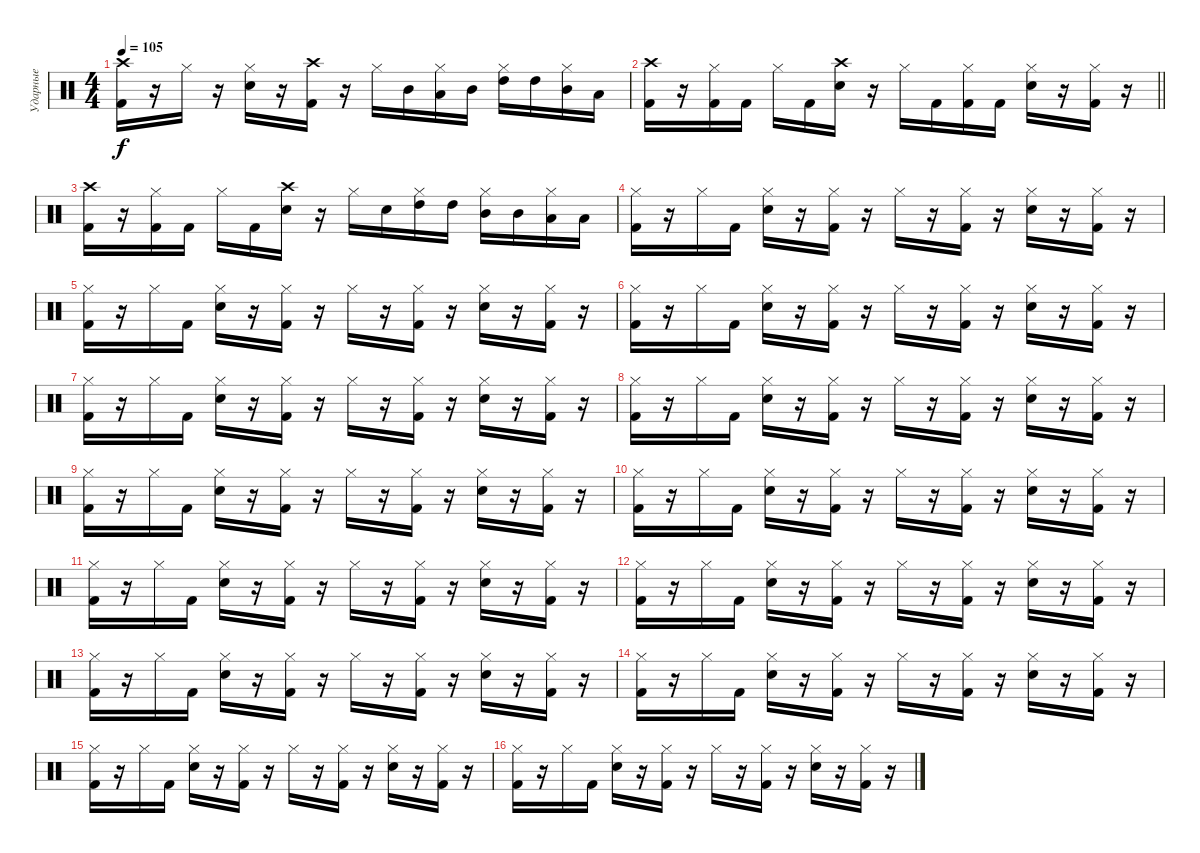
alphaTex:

\track ("Ударные" "Ударные") {instrument percussion}
\staff {score}
\articulation defaults
\ts (4 4)
\tempo 105
\clef neutral
\ks c
("Crash high (hit)" "Kick (hit) 2").16{dy f} r.16 "Hi-Hat (closed)".16 r.16 ("Hi-Hat (closed)" "Electric Snare (hit)").16 r.16 ("Crash high (hit)" "Kick (hit) 2").16 r.16 "Hi-Hat (closed)".16 "Mid Tom (hit)".16 ("Hi-Hat (closed)" "Low Tom (hit)").16 "Mid Tom (hit)".16 ("Hi-Hat (closed)" "High Tom (hit)").16 "High Tom (hit)".16 ("Hi-Hat (closed)" "Mid Tom (hit)").16 "Low Tom (hit)".16 |
\barLineRight lightlight
("Crash high (hit)" "Kick (hit) 2").16 r.16 ("Hi-Hat (closed)" "Kick (hit) 2").16 "Kick (hit) 2".16 "Hi-Hat (closed)".16 "Kick (hit) 2".16 ("Crash high (hit)" "Electric Snare (hit)").16 r.16 "Hi-Hat (closed)".16 "Kick (hit) 2".16 ("Hi-Hat (closed)" "Kick (hit) 2").16 "Kick (hit) 2".16 ("Hi-Hat (closed)" "Electric Snare (hit)").16 r.16 ("Hi-Hat (closed)" "Kick (hit) 2").16 r.16 |
("Crash high (hit)" "Kick (hit) 2").16 r.16 ("Hi-Hat (closed)" "Kick (hit) 2").16 "Kick (hit) 2".16 "Hi-Hat (closed)".16 "Kick (hit) 2".16 ("Crash high (hit)" "Electric Snare (hit)").16 r.16 "Hi-Hat (closed)".16 "Electric Snare (hit)".16 ("Hi-Hat (closed)" "High Tom (hit)").16 "High Tom (hit)".16 ("Hi-Hat (closed)" "Mid Tom (hit)").16 "Mid Tom (hit)".16 ("Hi-Hat (closed)" "Low Tom (hit)").16 "Low Tom (hit)".16 |
("Hi-Hat (closed)" "Kick (hit) 2").16 r.16 "Hi-Hat (closed)".16 "Kick (hit) 2".16 ("Hi-Hat (closed)" "Electric Snare (hit)").16 r.16 ("Hi-Hat (closed)" "Kick (hit) 2").16 r.16 "Hi-Hat (closed)".16 r.16 ("Hi-Hat (closed)" "Kick (hit) 2").16 r.16 ("Hi-Hat (closed)" "Electric Snare (hit)").16 r.16 ("Hi-Hat (closed)" "Kick (hit) 2").16 r.16 |
("Hi-Hat (closed)" "Kick (hit) 2").16 r.16 "Hi-Hat (closed)".16 "Kick (hit) 2".16 ("Hi-Hat (closed)" "Electric Snare (hit)").16 r.16 ("Hi-Hat (closed)" "Kick (hit) 2").16 r.16 "Hi-Hat (closed)".16 r.16 ("Hi-Hat (closed)" "Kick (hit) 2").16 r.16 ("Hi-Hat (closed)" "Electric Snare (hit)").16 r.16 ("Hi-Hat (closed)" "Kick (hit) 2").16 r.16 |
("Hi-Hat (closed)" "Kick (hit) 2").16 r.16 "Hi-Hat (closed)".16 "Kick (hit) 2".16 ("Hi-Hat (closed)" "Electric Snare (hit)").16 r.16 ("Hi-Hat (closed)" "Kick (hit) 2").16 r.16 "Hi-Hat (closed)".16 r.16 ("Hi-Hat (closed)" "Kick (hit) 2").16 r.16 ("Hi-Hat (closed)" "Electric Snare (hit)").16 r.16 ("Hi-Hat (closed)" "Kick (hit) 2").16 r.16 |
("Hi-Hat (closed)" "Kick (hit) 2").16 r.16 "Hi-Hat (closed)".16 "Kick (hit) 2".16 ("Hi-Hat (closed)" "Electric Snare (hit)").16 r.16 ("Hi-Hat (closed)" "Kick (hit) 2").16 r.16 "Hi-Hat (closed)".16 r.16 ("Hi-Hat (closed)" "Kick (hit) 2").16 r.16 ("Hi-Hat (closed)" "Electric Snare (hit)").16 r.16 ("Hi-Hat (closed)" "Kick (hit) 2").16 r.16 |
("Hi-Hat (closed)" "Kick (hit) 2").16 r.16 "Hi-Hat (closed)".16 "Kick (hit) 2".16 ("Hi-Hat (closed)" "Electric Snare (hit)").16 r.16 ("Hi-Hat (closed)" "Kick (hit) 2").16 r.16 "Hi-Hat (closed)".16 r.16 ("Hi-Hat (closed)" "Kick (hit) 2").16 r.16 ("Hi-Hat (closed)" "Electric Snare (hit)").16 r.16 ("Hi-Hat (closed)" "Kick (hit) 2").16 r.16 |
("Hi-Hat (closed)" "Kick (hit) 2").16 r.16 "Hi-Hat (closed)".16 "Kick (hit) 2".16 ("Hi-Hat (closed)" "Electric Snare (hit)").16 r.16 ("Hi-Hat (closed)" "Kick (hit) 2").16 r.16 "Hi-Hat (closed)".16 r.16 ("Hi-Hat (closed)" "Kick (hit) 2").16 r.16 ("Hi-Hat (closed)" "Electric Snare (hit)").16 r.16 ("Hi-Hat (closed)" "Kick (hit) 2").16 r.16 |
("Hi-Hat (closed)" "Kick (hit) 2").16 r.16 "Hi-Hat (closed)".16 "Kick (hit) 2".16 ("Hi-Hat (closed)" "Electric Snare (hit)").16 r.16 ("Hi-Hat (closed)" "Kick (hit) 2").16 r.16 "Hi-Hat (closed)".16 r.16 ("Hi-Hat (closed)" "Kick (hit) 2").16 r.16 ("Hi-Hat (closed)" "Electric Snare (hit)").16 r.16 ("Hi-Hat (closed)" "Kick (hit) 2").16 r.16 |
("Hi-Hat (closed)" "Kick (hit) 2").16 r.16 "Hi-Hat (closed)".16 "Kick (hit) 2".16 ("Hi-Hat (closed)" "Electric Snare (hit)").16 r.16 ("Hi-Hat (closed)" "Kick (hit) 2").16 r.16 "Hi-Hat (closed)".16 r.16 ("Hi-Hat (closed)" "Kick (hit) 2").16 r.16 ("Hi-Hat (closed)" "Electric Snare (hit)").16 r.16 ("Hi-Hat (closed)" "Kick (hit) 2").16 r.16 |
("Hi-Hat (closed)" "Kick (hit) 2").16 r.16 "Hi-Hat (closed)".16 "Kick (hit) 2".16 ("Hi-Hat (closed)" "Electric Snare (hit)").16 r.16 ("Hi-Hat (closed)" "Kick (hit) 2").16 r.16 "Hi-Hat (closed)".16 r.16 ("Hi-Hat (closed)" "Kick (hit) 2").16 r.16 ("Hi-Hat (closed)" "Electric Snare (hit)").16 r.16 ("Hi-Hat (closed)" "Kick (hit) 2").16 r.16 |
("Hi-Hat (closed)" "Kick (hit) 2").16 r.16 "Hi-Hat (closed)".16 "Kick (hit) 2".16 ("Hi-Hat (closed)" "Electric Snare (hit)").16 r.16 ("Hi-Hat (closed)" "Kick (hit) 2").16 r.16 "Hi-Hat (closed)".16 r.16 ("Hi-Hat (closed)" "Kick (hit) 2").16 r.16 ("Hi-Hat (closed)" "Electric Snare (hit)").16 r.16 ("Hi-Hat (closed)" "Kick (hit) 2").16 r.16 |
("Hi-Hat (closed)" "Kick (hit) 2").16 r.16 "Hi-Hat (closed)".16 "Kick (hit) 2".16 ("Hi-Hat (closed)" "Electric Snare (hit)").16 r.16 ("Hi-Hat (closed)" "Kick (hit) 2").16 r.16 "Hi-Hat (closed)".16 r.16 ("Hi-Hat (closed)" "Kick (hit) 2").16 r.16 ("Hi-Hat (closed)" "Electric Snare (hit)").16 r.16 ("Hi-Hat (closed)" "Kick (hit) 2").16 r.16 |
("Hi-Hat (closed)" "Kick (hit) 2").16 r.16 "Hi-Hat (closed)".16 "Kick (hit) 2".16 ("Hi-Hat (closed)" "Electric Snare (hit)").16 r.16 ("Hi-Hat (closed)" "Kick (hit) 2").16 r.16 "Hi-Hat (closed)".16 r.16 ("Hi-Hat (closed)" "Kick (hit) 2").16 r.16 ("Hi-Hat (closed)" "Electric Snare (hit)").16 r.16 ("Hi-Hat (closed)" "Kick (hit) 2").16 r.16 |
("Hi-Hat (closed)" "Kick (hit) 2").16 r.16 "Hi-Hat (closed)".16 "Kick (hit) 2".16 ("Hi-Hat (closed)" "Electric Snare (hit)").16 r.16 ("Hi-Hat (closed)" "Kick (hit) 2").16 r.16 "Hi-Hat (closed)".16 r.16 ("Hi-Hat (closed)" "Kick (hit) 2").16 r.16 ("Hi-Hat (closed)" "Electric Snare (hit)").16 r.16 ("Hi-Hat (closed)" "Kick (hit) 2").16 r.16
